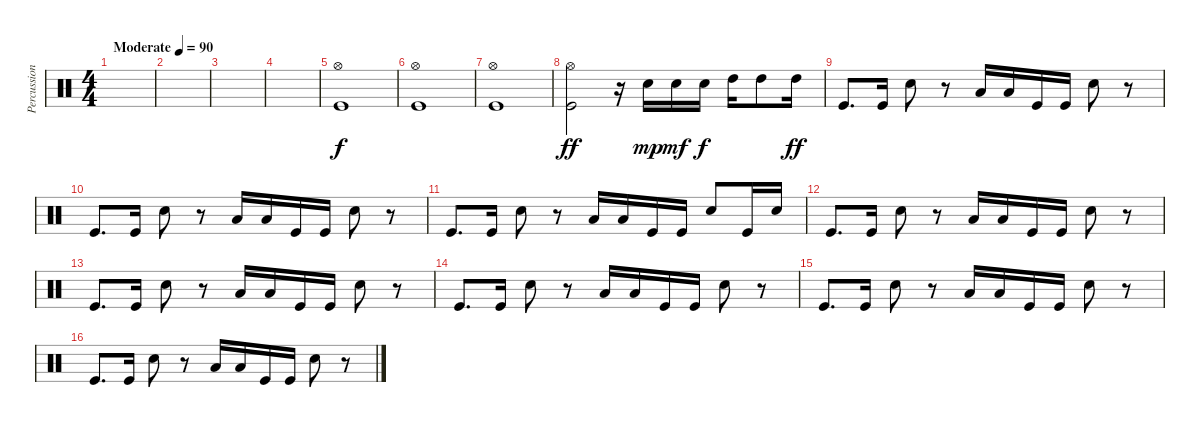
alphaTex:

\track ("Percussion" "Percussion") {instrument percussion}
\staff {score}
\articulation defaults
\ts (4 4)
\tempo (90 "Moderate")
\clef neutral
\ks c
|
|
|
|
("Kick (hit)" "Hi-Hat (open)").1 |
("Kick (hit)" "Hi-Hat (open)").1 |
("Kick (hit)" "Hi-Hat (open)").1 |
("Kick (hit)" "Hi-Hat (open)").2{dy ff} r.16 "Snare (hit) 2".16{dy mp} "Snare (hit) 2".16{dy mf} "Snare (hit) 2".16{dy f} "High Tom (hit)".16 "High Tom (hit)".8 "High Tom (hit)".16{dy ff} |
"Kick (hit)".8{d} "Kick (hit)".16 "Snare (hit) 2".8 r.8 "Low Floor Tom (hit)".16 "Low Floor Tom (hit)".16 "Kick (hit)".16 "Kick (hit)".16 "Snare (hit) 2".8 r.8 |
"Kick (hit)".8{d} "Kick (hit)".16 "Snare (hit) 2".8 r.8 "Low Floor Tom (hit)".16 "Low Floor Tom (hit)".16 "Kick (hit)".16 "Kick (hit)".16 "Snare (hit) 2".8 r.8 |
"Kick (hit)".8{d} "Kick (hit)".16 "Snare (hit) 2".8 r.8 "Low Floor Tom (hit)".16 "Low Floor Tom (hit)".16 "Kick (hit)".16 "Kick (hit)".16 "Snare (hit) 2".8 "Kick (hit)".16 "Snare (hit) 2".16 |
"Kick (hit)".8{d} "Kick (hit)".16 "Snare (hit) 2".8 r.8 "Low Floor Tom (hit)".16 "Low Floor Tom (hit)".16 "Kick (hit)".16 "Kick (hit)".16 "Snare (hit) 2".8 r.8 |
"Kick (hit)".8{d} "Kick (hit)".16 "Snare (hit) 2".8 r.8 "Low Floor Tom (hit)".16 "Low Floor Tom (hit)".16 "Kick (hit)".16 "Kick (hit)".16 "Snare (hit) 2".8 r.8 |
"Kick (hit)".8{d} "Kick (hit)".16 "Snare (hit) 2".8 r.8 "Low Floor Tom (hit)".16 "Low Floor Tom (hit)".16 "Kick (hit)".16 "Kick (hit)".16 "Snare (hit) 2".8 r.8 |
"Kick (hit)".8{d} "Kick (hit)".16 "Snare (hit) 2".8 r.8 "Low Floor Tom (hit)".16 "Low Floor Tom (hit)".16 "Kick (hit)".16 "Kick (hit)".16 "Snare (hit) 2".8 r.8 |
"Kick (hit)".8{d} "Kick (hit)".16 "Snare (hit) 2".8 r.8 "Low Floor Tom (hit)".16 "Low Floor Tom (hit)".16 "Kick (hit)".16 "Kick (hit)".16 "Snare (hit) 2".8 r.8
